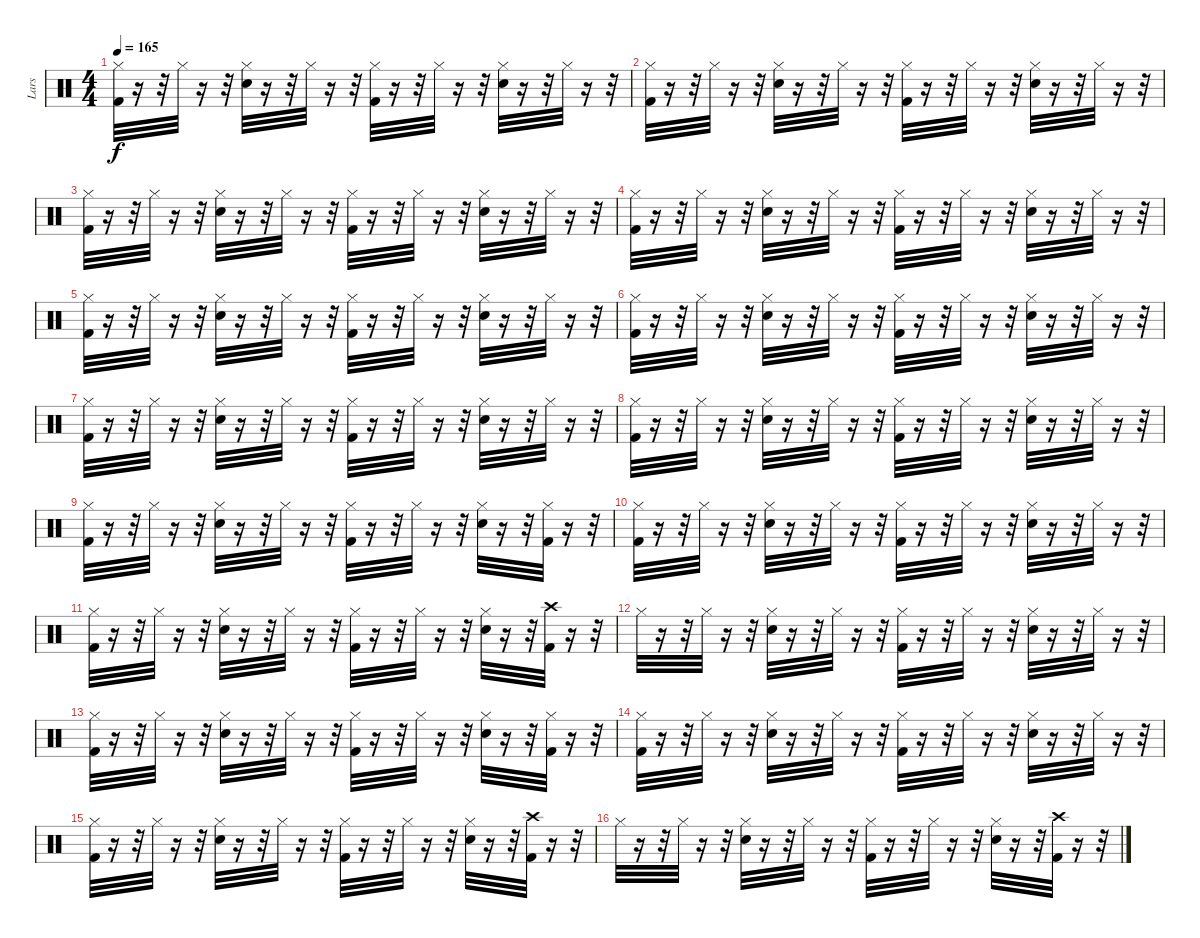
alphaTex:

\track ("Lars" "Lars") {instrument percussion}
\staff {score}
\articulation defaults
\ts (4 4)
\tempo 165
\clef neutral
\ks c
("Kick (hit) 2" "Hi-Hat (closed)").32{dy f} r.16 r.32 "Hi-Hat (closed)".32 r.16 r.32 ("Snare (hit) 2" "Hi-Hat (closed)").32 r.16 r.32 "Hi-Hat (closed)".32 r.16 r.32 ("Kick (hit) 2" "Hi-Hat (closed)").32 r.16 r.32 "Hi-Hat (closed)".32 r.16 r.32 ("Snare (hit) 2" "Hi-Hat (closed)").32 r.16 r.32 "Hi-Hat (closed)".32 r.16 r.32 |
("Kick (hit) 2" "Hi-Hat (closed)").32 r.16 r.32 "Hi-Hat (closed)".32 r.16 r.32 ("Snare (hit) 2" "Hi-Hat (closed)").32 r.16 r.32 "Hi-Hat (closed)".32 r.16 r.32 ("Kick (hit) 2" "Hi-Hat (closed)").32 r.16 r.32 "Hi-Hat (closed)".32 r.16 r.32 ("Snare (hit) 2" "Hi-Hat (closed)").32 r.16 r.32 "Hi-Hat (closed)".32 r.16 r.32 |
("Kick (hit) 2" "Hi-Hat (closed)").32 r.16 r.32 "Hi-Hat (closed)".32 r.16 r.32 ("Snare (hit) 2" "Hi-Hat (closed)").32 r.16 r.32 "Hi-Hat (closed)".32 r.16 r.32 ("Kick (hit) 2" "Hi-Hat (closed)").32 r.16 r.32 "Hi-Hat (closed)".32 r.16 r.32 ("Snare (hit) 2" "Hi-Hat (closed)").32 r.16 r.32 "Hi-Hat (closed)".32 r.16 r.32 |
("Kick (hit) 2" "Hi-Hat (closed)").32 r.16 r.32 "Hi-Hat (closed)".32 r.16 r.32 ("Snare (hit) 2" "Hi-Hat (closed)").32 r.16 r.32 "Hi-Hat (closed)".32 r.16 r.32 ("Kick (hit) 2" "Hi-Hat (closed)").32 r.16 r.32 "Hi-Hat (closed)".32 r.16 r.32 ("Snare (hit) 2" "Hi-Hat (closed)").32 r.16 r.32 "Hi-Hat (closed)".32 r.16 r.32 |
("Kick (hit) 2" "Hi-Hat (closed)").32 r.16 r.32 "Hi-Hat (closed)".32 r.16 r.32 ("Snare (hit) 2" "Hi-Hat (closed)").32 r.16 r.32 "Hi-Hat (closed)".32 r.16 r.32 ("Kick (hit) 2" "Hi-Hat (closed)").32 r.16 r.32 "Hi-Hat (closed)".32 r.16 r.32 ("Snare (hit) 2" "Hi-Hat (closed)").32 r.16 r.32 "Hi-Hat (closed)".32 r.16 r.32 |
("Kick (hit) 2" "Hi-Hat (closed)").32 r.16 r.32 "Hi-Hat (closed)".32 r.16 r.32 ("Snare (hit) 2" "Hi-Hat (closed)").32 r.16 r.32 "Hi-Hat (closed)".32 r.16 r.32 ("Kick (hit) 2" "Hi-Hat (closed)").32 r.16 r.32 "Hi-Hat (closed)".32 r.16 r.32 ("Snare (hit) 2" "Hi-Hat (closed)").32 r.16 r.32 "Hi-Hat (closed)".32 r.16 r.32 |
("Kick (hit) 2" "Hi-Hat (closed)").32 r.16 r.32 "Hi-Hat (closed)".32 r.16 r.32 ("Snare (hit) 2" "Hi-Hat (closed)").32 r.16 r.32 "Hi-Hat (closed)".32 r.16 r.32 ("Kick (hit) 2" "Hi-Hat (closed)").32 r.16 r.32 "Hi-Hat (closed)".32 r.16 r.32 ("Snare (hit) 2" "Hi-Hat (closed)").32 r.16 r.32 "Hi-Hat (closed)".32 r.16 r.32 |
("Kick (hit) 2" "Hi-Hat (closed)").32 r.16 r.32 "Hi-Hat (closed)".32 r.16 r.32 ("Snare (hit) 2" "Hi-Hat (closed)").32 r.16 r.32 "Hi-Hat (closed)".32 r.16 r.32 ("Kick (hit) 2" "Hi-Hat (closed)").32 r.16 r.32 "Hi-Hat (closed)".32 r.16 r.32 ("Snare (hit) 2" "Hi-Hat (closed)").32 r.16 r.32 "Hi-Hat (closed)".32 r.16 r.32 |
("Kick (hit) 2" "Hi-Hat (closed)").32 r.16 r.32 "Hi-Hat (closed)".32 r.16 r.32 ("Snare (hit) 2" "Hi-Hat (closed)").32 r.16 r.32 "Hi-Hat (closed)".32 r.16 r.32 ("Kick (hit) 2" "Hi-Hat (closed)").32 r.16 r.32 "Hi-Hat (closed)".32 r.16 r.32 ("Snare (hit) 2" "Hi-Hat (closed)").32 r.16 r.32 ("Kick (hit) 2" "Hi-Hat (closed)").32 r.16 r.32 |
("Kick (hit) 2" "Hi-Hat (closed)").32 r.16 r.32 "Hi-Hat (closed)".32 r.16 r.32 ("Snare (hit) 2" "Hi-Hat (closed)").32 r.16 r.32 "Hi-Hat (closed)".32 r.16 r.32 ("Kick (hit) 2" "Hi-Hat (closed)").32 r.16 r.32 "Hi-Hat (closed)".32 r.16 r.32 ("Snare (hit) 2" "Hi-Hat (closed)").32 r.16 r.32 "Hi-Hat (closed)".32 r.16 r.32 |
("Kick (hit) 2" "Hi-Hat (closed)").32 r.16 r.32 "Hi-Hat (closed)".32 r.16 r.32 ("Snare (hit) 2" "Hi-Hat (closed)").32 r.16 r.32 "Hi-Hat (closed)".32 r.16 r.32 ("Kick (hit) 2" "Hi-Hat (closed)").32 r.16 r.32 "Hi-Hat (closed)".32 r.16 r.32 ("Snare (hit) 2" "Hi-Hat (closed)").32 r.16 r.32 ("Crash high (hit)" "Kick (hit) 2").32 r.16 r.32 |
"Hi-Hat (closed)".32 r.16 r.32 "Hi-Hat (closed)".32 r.16 r.32 ("Snare (hit) 2" "Hi-Hat (closed)").32 r.16 r.32 "Hi-Hat (closed)".32 r.16 r.32 ("Kick (hit) 2" "Hi-Hat (closed)").32 r.16 r.32 "Hi-Hat (closed)".32 r.16 r.32 ("Snare (hit) 2" "Hi-Hat (closed)").32 r.16 r.32 "Hi-Hat (closed)".32 r.16 r.32 |
("Kick (hit) 2" "Hi-Hat (closed)").32 r.16 r.32 "Hi-Hat (closed)".32 r.16 r.32 ("Snare (hit) 2" "Hi-Hat (closed)").32 r.16 r.32 "Hi-Hat (closed)".32 r.16 r.32 ("Kick (hit) 2" "Hi-Hat (closed)").32 r.16 r.32 "Hi-Hat (closed)".32 r.16 r.32 ("Snare (hit) 2" "Hi-Hat (closed)").32 r.16 r.32 ("Kick (hit) 2" "Hi-Hat (closed)").32 r.16 r.32 |
("Kick (hit) 2" "Hi-Hat (closed)").32 r.16 r.32 "Hi-Hat (closed)".32 r.16 r.32 ("Snare (hit) 2" "Hi-Hat (closed)").32 r.16 r.32 "Hi-Hat (closed)".32 r.16 r.32 ("Kick (hit) 2" "Hi-Hat (closed)").32 r.16 r.32 "Hi-Hat (closed)".32 r.16 r.32 ("Snare (hit) 2" "Hi-Hat (closed)").32 r.16 r.32 "Hi-Hat (closed)".32 r.16 r.32 |
("Kick (hit) 2" "Hi-Hat (closed)").32 r.16 r.32 "Hi-Hat (closed)".32 r.16 r.32 ("Snare (hit) 2" "Hi-Hat (closed)").32 r.16 r.32 "Hi-Hat (closed)".32 r.16 r.32 ("Kick (hit) 2" "Hi-Hat (closed)").32 r.16 r.32 "Hi-Hat (closed)".32 r.16 r.32 ("Snare (hit) 2" "Hi-Hat (closed)").32 r.16 r.32 ("Crash high (hit)" "Kick (hit) 2").32 r.16 r.32 |
"Hi-Hat (closed)".32 r.16 r.32 "Hi-Hat (closed)".32 r.16 r.32 ("Snare (hit) 2" "Hi-Hat (closed)").32 r.16 r.32 "Hi-Hat (closed)".32 r.16 r.32 ("Kick (hit) 2" "Hi-Hat (closed)").32 r.16 r.32 "Hi-Hat (closed)".32 r.16 r.32 ("Snare (hit) 2" "Hi-Hat (closed)").32 r.16 r.32 ("Crash high (hit)" "Kick (hit) 2").32 r.16 r.32
